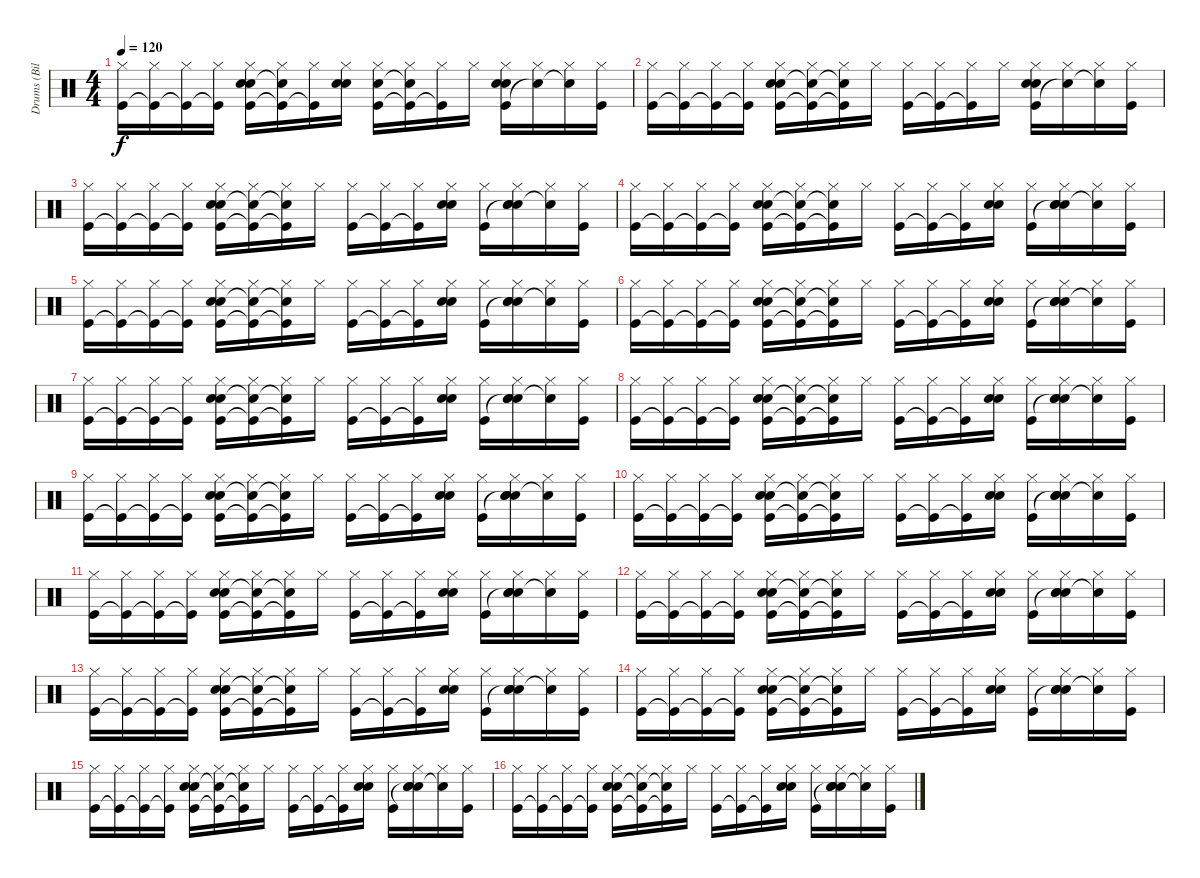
\track ("Drums (Bilerman)" "Drums (Bil") {instrument percussion}
\staff {score}
\articulation defaults
\ts (4 4)
\tempo 120
\clef neutral
\ks c
("Kick (hit)" "Hi-Hat (closed)").16{dy f} ("Kick (hit)"{t} "Hi-Hat (closed)").16 ("Kick (hit)"{t} "Hi-Hat (closed)").16 ("Kick (hit)"{t} "Hi-Hat (closed)").16 ("Kick (hit)" "Snare (hit) 2" "Snare (hit) 2" "Hi-Hat (closed)").16 ("Kick (hit)"{t} "Snare (hit) 2"{t} "Hi-Hat (closed)").16 ("Kick (hit)"{t} "Hi-Hat (closed)").16 ("Snare (hit) 2" "Snare (hit) 2" "Hi-Hat (closed)").16 ("Kick (hit)" "Snare (hit) 2" "Hi-Hat (closed)").16 ("Kick (hit)"{t} "Snare (hit)"{t} "Hi-Hat (closed)").16 ("Kick (hit)"{t} "Hi-Hat (closed)").16 "Hi-Hat (closed)".16 ("Kick (hit)" "Snare (hit) 2" "Snare (hit) 2" "Hi-Hat (closed)").16 ("Snare (hit)"{t} "Hi-Hat (closed)").16 ("Snare (hit) 2"{t} "Hi-Hat (closed)").16 ("Kick (hit)" "Hi-Hat (closed)").16 |
("Kick (hit)" "Hi-Hat (closed)").16 ("Kick (hit)"{t} "Hi-Hat (closed)").16 ("Kick (hit)"{t} "Hi-Hat (closed)").16 ("Kick (hit)"{t} "Hi-Hat (closed)").16 ("Kick (hit)" "Snare (hit) 2" "Snare (hit) 2" "Hi-Hat (closed)").16 ("Kick (hit)"{t} "Snare (hit) 2"{t} "Hi-Hat (closed)").16 ("Kick (hit)"{t} "Snare (hit) 2"{t} "Hi-Hat (closed)").16 "Hi-Hat (closed)".16 ("Kick (hit)" "Hi-Hat (closed)").16 ("Kick (hit)"{t} "Hi-Hat (closed)").16 ("Kick (hit)"{t} "Hi-Hat (closed)").16 "Hi-Hat (closed)".16 ("Kick (hit)" "Snare (hit) 2" "Snare (hit) 2" "Hi-Hat (closed)").16 ("Snare (hit)"{t} "Hi-Hat (closed)").16 ("Snare (hit) 2"{t} "Hi-Hat (closed)").16 ("Kick (hit)" "Hi-Hat (closed)").16 |
("Kick (hit)" "Hi-Hat (closed)").16 ("Kick (hit)"{t} "Hi-Hat (closed)").16 ("Kick (hit)"{t} "Hi-Hat (closed)").16 ("Kick (hit)"{t} "Hi-Hat (closed)").16 ("Kick (hit)" "Snare (hit) 2" "Snare (hit) 2" "Hi-Hat (closed)").16 ("Kick (hit)"{t} "Snare (hit) 2"{t} "Hi-Hat (closed)").16 ("Kick (hit)"{t} "Snare (hit) 2"{t} "Hi-Hat (closed)").16 "Hi-Hat (closed)".16 ("Kick (hit)" "Hi-Hat (closed)").16 ("Kick (hit)"{t} "Hi-Hat (closed)").16 ("Kick (hit)"{t} "Hi-Hat (closed)").16 ("Snare (hit) 2" "Snare (hit) 2" "Hi-Hat (closed)").16 ("Kick (hit)" "Hi-Hat (closed)").16 ("Snare (hit)"{t} "Snare (hit) 2" "Snare (hit) 2" "Hi-Hat (closed)").16 ("Snare (hit) 2"{t} "Hi-Hat (closed)").16 ("Kick (hit)" "Hi-Hat (closed)").16 |
("Kick (hit)" "Hi-Hat (closed)").16 ("Kick (hit)"{t} "Hi-Hat (closed)").16 ("Kick (hit)"{t} "Hi-Hat (closed)").16 ("Kick (hit)"{t} "Hi-Hat (closed)").16 ("Kick (hit)" "Snare (hit) 2" "Snare (hit) 2" "Hi-Hat (closed)").16 ("Kick (hit)"{t} "Snare (hit) 2"{t} "Hi-Hat (closed)").16 ("Kick (hit)"{t} "Snare (hit) 2"{t} "Hi-Hat (closed)").16 "Hi-Hat (closed)".16 ("Kick (hit)" "Hi-Hat (closed)").16 ("Kick (hit)"{t} "Hi-Hat (closed)").16 ("Kick (hit)"{t} "Hi-Hat (closed)").16 ("Snare (hit) 2" "Snare (hit) 2" "Hi-Hat (closed)").16 ("Kick (hit)" "Hi-Hat (closed)").16 ("Snare (hit)"{t} "Snare (hit) 2" "Snare (hit) 2" "Hi-Hat (closed)").16 ("Snare (hit) 2"{t} "Hi-Hat (closed)").16 ("Kick (hit)" "Hi-Hat (closed)").16 |
("Kick (hit)" "Hi-Hat (closed)").16 ("Kick (hit)"{t} "Hi-Hat (closed)").16 ("Kick (hit)"{t} "Hi-Hat (closed)").16 ("Kick (hit)"{t} "Hi-Hat (closed)").16 ("Kick (hit)" "Snare (hit) 2" "Snare (hit) 2" "Hi-Hat (closed)").16 ("Kick (hit)"{t} "Snare (hit) 2"{t} "Hi-Hat (closed)").16 ("Kick (hit)"{t} "Snare (hit) 2"{t} "Hi-Hat (closed)").16 "Hi-Hat (closed)".16 ("Kick (hit)" "Hi-Hat (closed)").16 ("Kick (hit)"{t} "Hi-Hat (closed)").16 ("Kick (hit)"{t} "Hi-Hat (closed)").16 ("Snare (hit) 2" "Snare (hit) 2" "Hi-Hat (closed)").16 ("Kick (hit)" "Hi-Hat (closed)").16 ("Snare (hit)"{t} "Snare (hit) 2" "Snare (hit) 2" "Hi-Hat (closed)").16 ("Snare (hit) 2"{t} "Hi-Hat (closed)").16 ("Kick (hit)" "Hi-Hat (closed)").16 |
("Kick (hit)" "Hi-Hat (closed)").16 ("Kick (hit)"{t} "Hi-Hat (closed)").16 ("Kick (hit)"{t} "Hi-Hat (closed)").16 ("Kick (hit)"{t} "Hi-Hat (closed)").16 ("Kick (hit)" "Snare (hit) 2" "Snare (hit) 2" "Hi-Hat (closed)").16 ("Kick (hit)"{t} "Snare (hit) 2"{t} "Hi-Hat (closed)").16 ("Kick (hit)"{t} "Snare (hit) 2"{t} "Hi-Hat (closed)").16 "Hi-Hat (closed)".16 ("Kick (hit)" "Hi-Hat (closed)").16 ("Kick (hit)"{t} "Hi-Hat (closed)").16 ("Kick (hit)"{t} "Hi-Hat (closed)").16 ("Snare (hit) 2" "Snare (hit) 2" "Hi-Hat (closed)").16 ("Kick (hit)" "Hi-Hat (closed)").16 ("Snare (hit)"{t} "Snare (hit) 2" "Snare (hit) 2" "Hi-Hat (closed)").16 ("Snare (hit) 2"{t} "Hi-Hat (closed)").16 ("Kick (hit)" "Hi-Hat (closed)").16 |
("Kick (hit)" "Hi-Hat (closed)").16 ("Kick (hit)"{t} "Hi-Hat (closed)").16 ("Kick (hit)"{t} "Hi-Hat (closed)").16 ("Kick (hit)"{t} "Hi-Hat (closed)").16 ("Kick (hit)" "Snare (hit) 2" "Snare (hit) 2" "Hi-Hat (closed)").16 ("Kick (hit)"{t} "Snare (hit) 2"{t} "Hi-Hat (closed)").16 ("Kick (hit)"{t} "Snare (hit) 2"{t} "Hi-Hat (closed)").16 "Hi-Hat (closed)".16 ("Kick (hit)" "Hi-Hat (closed)").16 ("Kick (hit)"{t} "Hi-Hat (closed)").16 ("Kick (hit)"{t} "Hi-Hat (closed)").16 ("Snare (hit) 2" "Snare (hit) 2" "Hi-Hat (closed)").16 ("Kick (hit)" "Hi-Hat (closed)").16 ("Snare (hit)"{t} "Snare (hit) 2" "Snare (hit) 2" "Hi-Hat (closed)").16 ("Snare (hit) 2"{t} "Hi-Hat (closed)").16 ("Kick (hit)" "Hi-Hat (closed)").16 |
("Kick (hit)" "Hi-Hat (closed)").16 ("Kick (hit)"{t} "Hi-Hat (closed)").16 ("Kick (hit)"{t} "Hi-Hat (closed)").16 ("Kick (hit)"{t} "Hi-Hat (closed)").16 ("Kick (hit)" "Snare (hit) 2" "Snare (hit) 2" "Hi-Hat (closed)").16 ("Kick (hit)"{t} "Snare (hit) 2"{t} "Hi-Hat (closed)").16 ("Kick (hit)"{t} "Snare (hit) 2"{t} "Hi-Hat (closed)").16 "Hi-Hat (closed)".16 ("Kick (hit)" "Hi-Hat (closed)").16 ("Kick (hit)"{t} "Hi-Hat (closed)").16 ("Kick (hit)"{t} "Hi-Hat (closed)").16 ("Snare (hit) 2" "Snare (hit) 2" "Hi-Hat (closed)").16 ("Kick (hit)" "Hi-Hat (closed)").16 ("Snare (hit)"{t} "Snare (hit) 2" "Snare (hit) 2" "Hi-Hat (closed)").16 ("Snare (hit) 2"{t} "Hi-Hat (closed)").16 ("Kick (hit)" "Hi-Hat (closed)").16 |
("Kick (hit)" "Hi-Hat (closed)").16 ("Kick (hit)"{t} "Hi-Hat (closed)").16 ("Kick (hit)"{t} "Hi-Hat (closed)").16 ("Kick (hit)"{t} "Hi-Hat (closed)").16 ("Kick (hit)" "Snare (hit) 2" "Snare (hit) 2" "Hi-Hat (closed)").16 ("Kick (hit)"{t} "Snare (hit) 2"{t} "Hi-Hat (closed)").16 ("Kick (hit)"{t} "Snare (hit) 2"{t} "Hi-Hat (closed)").16 "Hi-Hat (closed)".16 ("Kick (hit)" "Hi-Hat (closed)").16 ("Kick (hit)"{t} "Hi-Hat (closed)").16 ("Kick (hit)"{t} "Hi-Hat (closed)").16 ("Snare (hit) 2" "Snare (hit) 2" "Hi-Hat (closed)").16 ("Kick (hit)" "Hi-Hat (closed)").16 ("Snare (hit)"{t} "Snare (hit) 2" "Snare (hit) 2" "Hi-Hat (closed)").16 ("Snare (hit) 2"{t} "Hi-Hat (closed)").16 ("Kick (hit)" "Hi-Hat (closed)").16 |
("Kick (hit)" "Hi-Hat (closed)").16 ("Kick (hit)"{t} "Hi-Hat (closed)").16 ("Kick (hit)"{t} "Hi-Hat (closed)").16 ("Kick (hit)"{t} "Hi-Hat (closed)").16 ("Kick (hit)" "Snare (hit) 2" "Snare (hit) 2" "Hi-Hat (closed)").16 ("Kick (hit)"{t} "Snare (hit) 2"{t} "Hi-Hat (closed)").16 ("Kick (hit)"{t} "Snare (hit) 2"{t} "Hi-Hat (closed)").16 "Hi-Hat (closed)".16 ("Kick (hit)" "Hi-Hat (closed)").16 ("Kick (hit)"{t} "Hi-Hat (closed)").16 ("Kick (hit)"{t} "Hi-Hat (closed)").16 ("Snare (hit) 2" "Snare (hit) 2" "Hi-Hat (closed)").16 ("Kick (hit)" "Hi-Hat (closed)").16 ("Snare (hit)"{t} "Snare (hit) 2" "Snare (hit) 2" "Hi-Hat (closed)").16 ("Snare (hit) 2"{t} "Hi-Hat (closed)").16 ("Kick (hit)" "Hi-Hat (closed)").16 |
("Kick (hit)" "Hi-Hat (closed)").16 ("Kick (hit)"{t} "Hi-Hat (closed)").16 ("Kick (hit)"{t} "Hi-Hat (closed)").16 ("Kick (hit)"{t} "Hi-Hat (closed)").16 ("Kick (hit)" "Snare (hit) 2" "Snare (hit) 2" "Hi-Hat (closed)").16 ("Kick (hit)"{t} "Snare (hit) 2"{t} "Hi-Hat (closed)").16 ("Kick (hit)"{t} "Snare (hit) 2"{t} "Hi-Hat (closed)").16 "Hi-Hat (closed)".16 ("Kick (hit)" "Hi-Hat (closed)").16 ("Kick (hit)"{t} "Hi-Hat (closed)").16 ("Kick (hit)"{t} "Hi-Hat (closed)").16 ("Snare (hit) 2" "Snare (hit) 2" "Hi-Hat (closed)").16 ("Kick (hit)" "Hi-Hat (closed)").16 ("Snare (hit)"{t} "Snare (hit) 2" "Snare (hit) 2" "Hi-Hat (closed)").16 ("Snare (hit) 2"{t} "Hi-Hat (closed)").16 ("Kick (hit)" "Hi-Hat (closed)").16 |
("Kick (hit)" "Hi-Hat (closed)").16 ("Kick (hit)"{t} "Hi-Hat (closed)").16 ("Kick (hit)"{t} "Hi-Hat (closed)").16 ("Kick (hit)"{t} "Hi-Hat (closed)").16 ("Kick (hit)" "Snare (hit) 2" "Snare (hit) 2" "Hi-Hat (closed)").16 ("Kick (hit)"{t} "Snare (hit) 2"{t} "Hi-Hat (closed)").16 ("Kick (hit)"{t} "Snare (hit) 2"{t} "Hi-Hat (closed)").16 "Hi-Hat (closed)".16 ("Kick (hit)" "Hi-Hat (closed)").16 ("Kick (hit)"{t} "Hi-Hat (closed)").16 ("Kick (hit)"{t} "Hi-Hat (closed)").16 ("Snare (hit) 2" "Snare (hit) 2" "Hi-Hat (closed)").16 ("Kick (hit)" "Hi-Hat (closed)").16 ("Snare (hit)"{t} "Snare (hit) 2" "Snare (hit) 2" "Hi-Hat (closed)").16 ("Snare (hit) 2"{t} "Hi-Hat (closed)").16 ("Kick (hit)" "Hi-Hat (closed)").16 |
("Kick (hit)" "Hi-Hat (closed)").16 ("Kick (hit)"{t} "Hi-Hat (closed)").16 ("Kick (hit)"{t} "Hi-Hat (closed)").16 ("Kick (hit)"{t} "Hi-Hat (closed)").16 ("Kick (hit)" "Snare (hit) 2" "Snare (hit) 2" "Hi-Hat (closed)").16 ("Kick (hit)"{t} "Snare (hit) 2"{t} "Hi-Hat (closed)").16 ("Kick (hit)"{t} "Snare (hit) 2"{t} "Hi-Hat (closed)").16 "Hi-Hat (closed)".16 ("Kick (hit)" "Hi-Hat (closed)").16 ("Kick (hit)"{t} "Hi-Hat (closed)").16 ("Kick (hit)"{t} "Hi-Hat (closed)").16 ("Snare (hit) 2" "Snare (hit) 2" "Hi-Hat (closed)").16 ("Kick (hit)" "Hi-Hat (closed)").16 ("Snare (hit)"{t} "Snare (hit) 2" "Snare (hit) 2" "Hi-Hat (closed)").16 ("Snare (hit) 2"{t} "Hi-Hat (closed)").16 ("Kick (hit)" "Hi-Hat (closed)").16 |
("Kick (hit)" "Hi-Hat (closed)").16 ("Kick (hit)"{t} "Hi-Hat (closed)").16 ("Kick (hit)"{t} "Hi-Hat (closed)").16 ("Kick (hit)"{t} "Hi-Hat (closed)").16 ("Kick (hit)" "Snare (hit) 2" "Snare (hit) 2" "Hi-Hat (closed)").16 ("Kick (hit)"{t} "Snare (hit) 2"{t} "Hi-Hat (closed)").16 ("Kick (hit)"{t} "Snare (hit) 2"{t} "Hi-Hat (closed)").16 "Hi-Hat (closed)".16 ("Kick (hit)" "Hi-Hat (closed)").16 ("Kick (hit)"{t} "Hi-Hat (closed)").16 ("Kick (hit)"{t} "Hi-Hat (closed)").16 ("Snare (hit) 2" "Snare (hit) 2" "Hi-Hat (closed)").16 ("Kick (hit)" "Hi-Hat (closed)").16 ("Snare (hit)"{t} "Snare (hit) 2" "Snare (hit) 2" "Hi-Hat (closed)").16 ("Snare (hit) 2"{t} "Hi-Hat (closed)").16 ("Kick (hit)" "Hi-Hat (closed)").16 |
("Kick (hit)" "Hi-Hat (closed)").16 ("Kick (hit)"{t} "Hi-Hat (closed)").16 ("Kick (hit)"{t} "Hi-Hat (closed)").16 ("Kick (hit)"{t} "Hi-Hat (closed)").16 ("Kick (hit)" "Snare (hit) 2" "Snare (hit) 2" "Hi-Hat (closed)").16 ("Kick (hit)"{t} "Snare (hit) 2"{t} "Hi-Hat (closed)").16 ("Kick (hit)"{t} "Snare (hit) 2"{t} "Hi-Hat (closed)").16 "Hi-Hat (closed)".16 ("Kick (hit)" "Hi-Hat (closed)").16 ("Kick (hit)"{t} "Hi-Hat (closed)").16 ("Kick (hit)"{t} "Hi-Hat (closed)").16 ("Snare (hit) 2" "Snare (hit) 2" "Hi-Hat (closed)").16 ("Kick (hit)" "Hi-Hat (closed)").16 ("Snare (hit)"{t} "Snare (hit) 2" "Snare (hit) 2" "Hi-Hat (closed)").16 ("Snare (hit) 2"{t} "Hi-Hat (closed)").16 ("Kick (hit)" "Hi-Hat (closed)").16 |
("Kick (hit)" "Hi-Hat (closed)").16 ("Kick (hit)"{t} "Hi-Hat (closed)").16 ("Kick (hit)"{t} "Hi-Hat (closed)").16 ("Kick (hit)"{t} "Hi-Hat (closed)").16 ("Kick (hit)" "Snare (hit) 2" "Snare (hit) 2" "Hi-Hat (closed)").16 ("Kick (hit)"{t} "Snare (hit) 2"{t} "Hi-Hat (closed)").16 ("Kick (hit)"{t} "Snare (hit) 2"{t} "Hi-Hat (closed)").16 "Hi-Hat (closed)".16 ("Kick (hit)" "Hi-Hat (closed)").16 ("Kick (hit)"{t} "Hi-Hat (closed)").16 ("Kick (hit)"{t} "Hi-Hat (closed)").16 ("Snare (hit) 2" "Snare (hit) 2" "Hi-Hat (closed)").16 ("Kick (hit)" "Hi-Hat (closed)").16 ("Snare (hit)"{t} "Snare (hit) 2" "Snare (hit) 2" "Hi-Hat (closed)").16 ("Snare (hit) 2"{t} "Hi-Hat (closed)").16 ("Kick (hit)" "Hi-Hat (closed)").16
